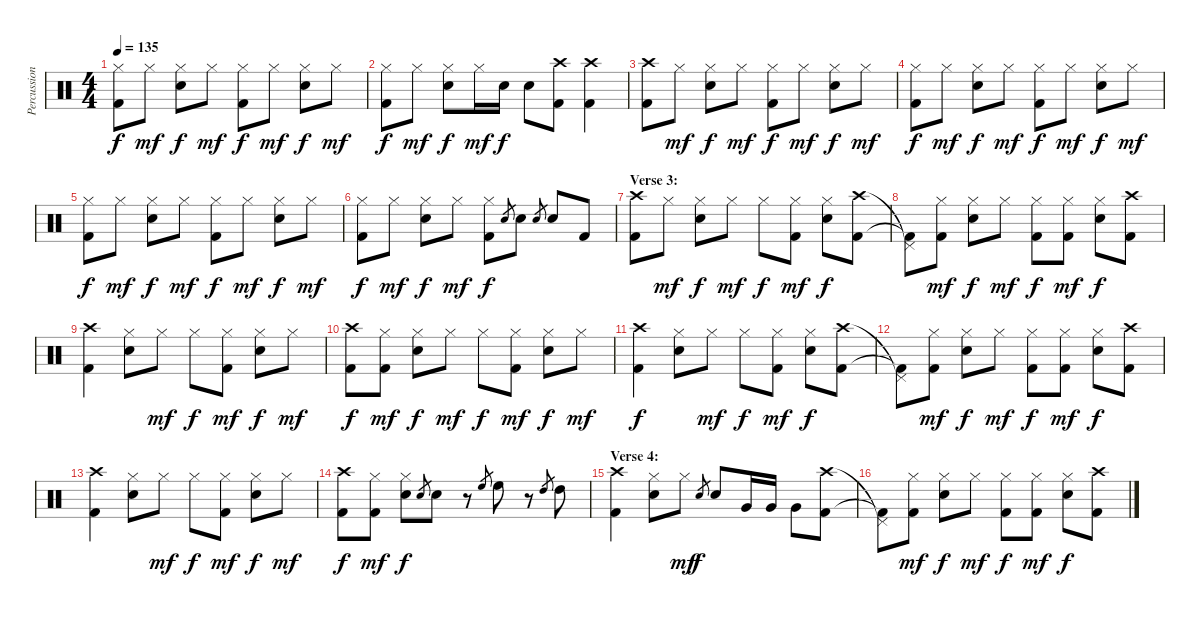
\track ("Percussion" "Percussion") {instrument percussion}
\staff {score}
\articulation defaults
\ts (4 4)
\tempo 135
\clef neutral
\ks c
("Hi-Hat (closed)" "Kick (hit) 2").8{dy f} "Hi-Hat (closed)".8{dy mf} ("Hi-Hat (closed)" "Snare (hit) 2").8{dy f} "Hi-Hat (closed)".8{dy mf} ("Hi-Hat (closed)" "Kick (hit) 2").8{dy f} "Hi-Hat (closed)".8{dy mf} ("Hi-Hat (closed)" "Snare (hit) 2").8{dy f} "Hi-Hat (closed)".8{dy mf} |
("Hi-Hat (closed)" "Kick (hit) 2").8{dy f} "Hi-Hat (closed)".8{dy mf} ("Hi-Hat (closed)" "Snare (hit) 2").8{dy f} "Hi-Hat (closed)".16{dy mf} "Snare (hit) 2".16{dy f} "Snare (hit) 2".8 ("Crash high (hit)" "Kick (hit) 2").8 ("Crash high (hit)" "Kick (hit) 2").4 |
("Crash high (hit)" "Kick (hit) 2").8 "Hi-Hat (closed)".8{dy mf} ("Hi-Hat (closed)" "Snare (hit) 2").8{dy f} "Hi-Hat (closed)".8{dy mf} ("Hi-Hat (closed)" "Kick (hit) 2").8{dy f} "Hi-Hat (closed)".8{dy mf} ("Hi-Hat (closed)" "Snare (hit) 2").8{dy f} "Hi-Hat (closed)".8{dy mf} |
("Hi-Hat (closed)" "Kick (hit) 2").8{dy f} "Hi-Hat (closed)".8{dy mf} ("Hi-Hat (closed)" "Snare (hit) 2").8{dy f} "Hi-Hat (closed)".8{dy mf} ("Hi-Hat (closed)" "Kick (hit) 2").8{dy f} "Hi-Hat (closed)".8{dy mf} ("Hi-Hat (closed)" "Snare (hit) 2").8{dy f} "Hi-Hat (closed)".8{dy mf} |
("Hi-Hat (closed)" "Kick (hit) 2").8{dy f} "Hi-Hat (closed)".8{dy mf} ("Hi-Hat (closed)" "Snare (hit) 2").8{dy f} "Hi-Hat (closed)".8{dy mf} ("Hi-Hat (closed)" "Kick (hit) 2").8{dy f} "Hi-Hat (closed)".8{dy mf} ("Hi-Hat (closed)" "Snare (hit) 2").8{dy f} "Hi-Hat (closed)".8{dy mf} |
("Hi-Hat (closed)" "Kick (hit) 2").8{dy f} "Hi-Hat (closed)".8{dy mf} ("Hi-Hat (closed)" "Snare (hit) 2").8{dy f} "Hi-Hat (closed)".8{dy mf} ("Hi-Hat (closed)" "Kick (hit) 2").8{dy f} "Snare (hit) 2".8{gr} "Snare (hit) 2".8 "Snare (hit) 2".8{gr} "Snare (hit) 2".8 "Kick (hit) 2".8 |
\section ("" "Verse 3:")
("Crash high (hit)" "Kick (hit) 2").8 "Hi-Hat (closed)".8{dy mf} ("Hi-Hat (closed)" "Snare (hit) 2").8{dy f} "Hi-Hat (closed)".8{dy mf} "Hi-Hat (closed)".8{dy f} ("Hi-Hat (closed)" "Kick (hit) 2").8{dy mf} ("Hi-Hat (closed)" "Snare (hit) 2").8{dy f} ("Crash high (hit)" "Kick (hit) 2").8 |
("Pedal Hi-Hat (hit)"{t} "Kick (hit) 2"{t}).8 ("Hi-Hat (closed)" "Kick (hit) 2").8{dy mf} ("Hi-Hat (closed)" "Snare (hit) 2").8{dy f} "Hi-Hat (closed)".8{dy mf} ("Hi-Hat (closed)" "Kick (hit) 2").8{dy f} ("Hi-Hat (closed)" "Kick (hit) 2").8{dy mf} ("Hi-Hat (closed)" "Snare (hit) 2").8{dy f} ("Crash high (hit)" "Kick (hit) 2").8 |
("Crash high (hit)" "Kick (hit) 2").4 ("Hi-Hat (closed)" "Snare (hit) 2").8 "Hi-Hat (closed)".8{dy mf} "Hi-Hat (closed)".8{dy f} ("Hi-Hat (closed)" "Kick (hit) 2").8{dy mf} ("Hi-Hat (closed)" "Snare (hit) 2").8{dy f} "Hi-Hat (closed)".8{dy mf} |
("Crash high (hit)" "Kick (hit) 2").8{dy f} ("Hi-Hat (closed)" "Kick (hit) 2").8{dy mf} ("Hi-Hat (closed)" "Snare (hit) 2").8{dy f} "Hi-Hat (closed)".8{dy mf} "Hi-Hat (closed)".8{dy f} ("Hi-Hat (closed)" "Kick (hit) 2").8{dy mf} ("Hi-Hat (closed)" "Snare (hit) 2").8{dy f} "Hi-Hat (closed)".8{dy mf} |
("Crash high (hit)" "Kick (hit) 2").4{dy f} ("Hi-Hat (closed)" "Snare (hit) 2").8 "Hi-Hat (closed)".8{dy mf} "Hi-Hat (closed)".8{dy f} ("Hi-Hat (closed)" "Kick (hit) 2").8{dy mf} ("Hi-Hat (closed)" "Snare (hit) 2").8{dy f} ("Crash high (hit)" "Kick (hit) 2").8 |
("Pedal Hi-Hat (hit)"{t} "Kick (hit) 2"{t}).8 ("Hi-Hat (closed)" "Kick (hit) 2").8{dy mf} ("Hi-Hat (closed)" "Snare (hit) 2").8{dy f} "Hi-Hat (closed)".8{dy mf} ("Hi-Hat (closed)" "Kick (hit) 2").8{dy f} ("Hi-Hat (closed)" "Kick (hit) 2").8{dy mf} ("Hi-Hat (closed)" "Snare (hit) 2").8{dy f} ("Crash high (hit)" "Kick (hit) 2").8 |
("Crash high (hit)" "Kick (hit) 2").4 ("Hi-Hat (closed)" "Snare (hit) 2").8 "Hi-Hat (closed)".8{dy mf} "Hi-Hat (closed)".8{dy f} ("Hi-Hat (closed)" "Kick (hit) 2").8{dy mf} ("Hi-Hat (closed)" "Snare (hit) 2").8{dy f} "Hi-Hat (closed)".8{dy mf} |
("Crash high (hit)" "Kick (hit) 2").8{dy f} ("Hi-Hat (closed)" "Kick (hit) 2").8{dy mf} ("Hi-Hat (closed)" "Snare (hit) 2").8{dy f} "Snare (hit) 2".8{gr} "Snare (hit) 2".8 r.8 "High Floor Tom (hit)".8{gr} "High Floor Tom (hit)".8 r.8 "High Tom (hit)".8{gr} "High Tom (hit)".8 |
\section ("" "Verse 4:")
("Crash high (hit)" "Kick (hit) 2").4 ("Hi-Hat (closed)" "Snare (hit) 2").8 "Hi-Hat (closed)".8{dy mf} "Snare (hit) 2".8{gr dy f} "Snare (hit) 2".8 "Very Low Tom (hit)".16 "Very Low Tom (hit)".16 "Very Low Tom (hit)".8 ("Crash high (hit)" "Kick (hit) 2").8 |
("Pedal Hi-Hat (hit)"{t} "Kick (hit) 2"{t}).8 ("Hi-Hat (closed)" "Kick (hit) 2").8{dy mf} ("Hi-Hat (closed)" "Snare (hit) 2").8{dy f} "Hi-Hat (closed)".8{dy mf} ("Hi-Hat (closed)" "Kick (hit) 2").8{dy f} ("Hi-Hat (closed)" "Kick (hit) 2").8{dy mf} ("Hi-Hat (closed)" "Snare (hit) 2").8{dy f} ("Crash high (hit)" "Kick (hit) 2").8
